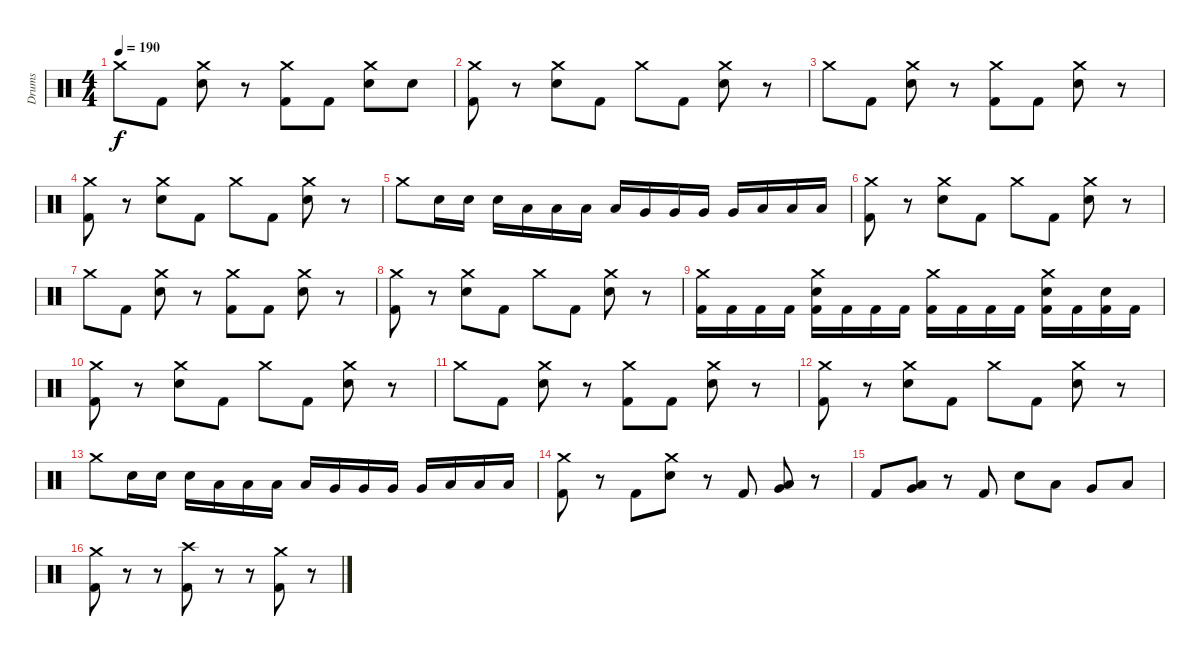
\track ("Drums" "Drums") {instrument percussion}
\staff {score}
\articulation defaults
\ts (4 4)
\tempo 190
\clef neutral
\ks c "Crash medium (hit)".8{dy f} "Kick (hit) 2".8
("Crash medium (hit)" "Electric Snare (hit)").8 r.8 ("Crash medium (hit)" "Kick (hit) 2").8 "Kick (hit) 2".8 ("Crash medium (hit)" "Electric Snare (hit)").8 "Electric Snare (hit)".8 |
("Crash medium (hit)" "Kick (hit) 2").8 r.8 ("Crash medium (hit)" "Electric Snare (hit)").8 "Kick (hit) 2".8 "Crash medium (hit)".8 "Kick (hit) 2".8 ("Crash medium (hit)" "Electric Snare (hit)").8 r.8 |
"Crash medium (hit)".8 "Kick (hit) 2".8 ("Crash medium (hit)" "Electric Snare (hit)").8 r.8 ("Crash medium (hit)" "Kick (hit) 2").8 "Kick (hit) 2".8 ("Crash medium (hit)" "Electric Snare (hit)").8 r.8 |
("Crash medium (hit)" "Kick (hit) 2").8 r.8 ("Crash medium (hit)" "Electric Snare (hit)").8 "Kick (hit) 2".8 "Crash medium (hit)".8 "Kick (hit) 2".8 ("Crash medium (hit)" "Electric Snare (hit)").8 r.8 |
"Crash medium (hit)".8 "Electric Snare (hit)".16 "Electric Snare (hit)".16 "Electric Snare (hit)".16 "Low Tom (hit)".16 "Low Tom (hit)".16 "Low Tom (hit)".16 "Low Tom (hit)".16 "Very Low Tom (hit)".16 "Very Low Tom (hit)".16 "Very Low Tom (hit)".16 "Very Low Tom (hit)".16 "Low Floor Tom (hit)".16 "Low Floor Tom (hit)".16 "Low Floor Tom (hit)".16 |
("Crash medium (hit)" "Kick (hit) 2").8 r.8 ("Crash medium (hit)" "Electric Snare (hit)").8 "Kick (hit) 2".8 "Crash medium (hit)".8 "Kick (hit) 2".8 ("Crash medium (hit)" "Electric Snare (hit)").8 r.8 |
"Crash medium (hit)".8 "Kick (hit) 2".8 ("Crash medium (hit)" "Electric Snare (hit)").8 r.8 ("Crash medium (hit)" "Kick (hit) 2").8 "Kick (hit) 2".8 ("Crash medium (hit)" "Electric Snare (hit)").8 r.8 |
("Crash medium (hit)" "Kick (hit) 2").8 r.8 ("Crash medium (hit)" "Electric Snare (hit)").8 "Kick (hit) 2".8 "Crash medium (hit)".8 "Kick (hit) 2".8 ("Crash medium (hit)" "Electric Snare (hit)").8 r.8 |
("Crash medium (hit)" "Kick (hit) 2").16 "Kick (hit) 2".16 "Kick (hit) 2".16 "Kick (hit) 2".16 ("Crash medium (hit)" "Electric Snare (hit)" "Kick (hit) 2").16 "Kick (hit) 2".16 "Kick (hit) 2".16 "Kick (hit) 2".16 ("Crash medium (hit)" "Kick (hit) 2").16 "Kick (hit) 2".16 "Kick (hit) 2".16 "Kick (hit) 2".16 ("Crash medium (hit)" "Electric Snare (hit)" "Kick (hit) 2").16 "Kick (hit) 2".16 ("Electric Snare (hit)" "Kick (hit) 2").16 "Kick (hit) 2".16 |
("Crash medium (hit)" "Kick (hit) 2").8 r.8 ("Crash medium (hit)" "Electric Snare (hit)").8 "Kick (hit) 2".8 "Crash medium (hit)".8 "Kick (hit) 2".8 ("Crash medium (hit)" "Electric Snare (hit)").8 r.8 |
"Crash medium (hit)".8 "Kick (hit) 2".8 ("Crash medium (hit)" "Electric Snare (hit)").8 r.8 ("Crash medium (hit)" "Kick (hit) 2").8 "Kick (hit) 2".8 ("Crash medium (hit)" "Electric Snare (hit)").8 r.8 |
("Crash medium (hit)" "Kick (hit) 2").8 r.8 ("Crash medium (hit)" "Electric Snare (hit)").8 "Kick (hit) 2".8 "Crash medium (hit)".8 "Kick (hit) 2".8 ("Crash medium (hit)" "Electric Snare (hit)").8 r.8 |
"Crash medium (hit)".8 "Electric Snare (hit)".16 "Electric Snare (hit)".16 "Electric Snare (hit)".16 "Low Tom (hit)".16 "Low Tom (hit)".16 "Low Tom (hit)".16 "Low Tom (hit)".16 "Very Low Tom (hit)".16 "Very Low Tom (hit)".16 "Very Low Tom (hit)".16 "Very Low Tom (hit)".16 "Low Floor Tom (hit)".16 "Low Floor Tom (hit)".16 "Low Floor Tom (hit)".16 |
("Crash medium (hit)" "Kick (hit) 2").8 r.8 "Kick (hit) 2".8 ("Crash medium (hit)" "Electric Snare (hit)").8 r.8 "Kick (hit) 2".8 ("Very Low Tom (hit)" "Low Tom (hit)").8 r.8 |
"Kick (hit) 2".8 ("Very Low Tom (hit)" "Low Floor Tom (hit)").8 r.8 "Kick (hit) 2".8 "Electric Snare (hit)".8 "Low Tom (hit)".8 "Very Low Tom (hit)".8 "Low Floor Tom (hit)".8 |
("Crash medium (hit)" "Kick (hit) 2").8 r.8 r.8 ("Crash high (hit)" "Kick (hit) 2").8 r.8 r.8 ("Crash medium (hit)" "Kick (hit) 2").8 r.8
